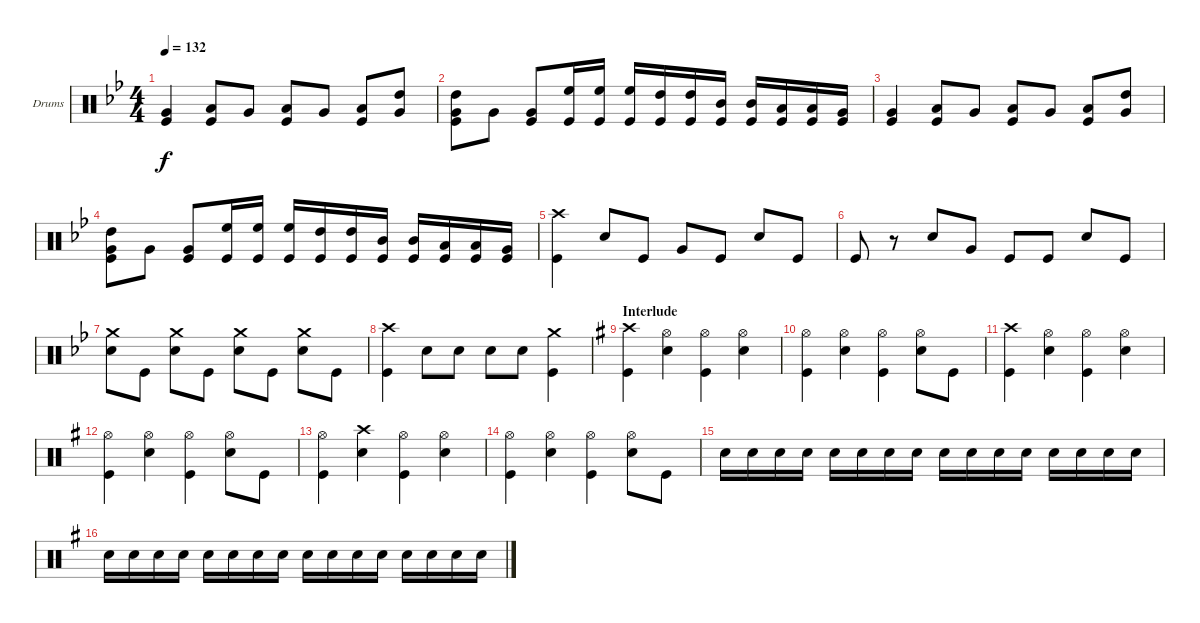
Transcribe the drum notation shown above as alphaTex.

\bracketExtendMode groupsimilarinstruments
\firstSystemTrackNameOrientation horizontal
\otherSystemsTrackNameOrientation horizontal
\track ("Drumkit" "Drums") {instrument percussion}
\staff {score}
\articulation defaults
\ts (4 4)
\tempo 132
\clef neutral
\ks bb
("Very Low Tom (hit)" "Kick (hit)").4{dy f} ("Low Tom (hit)" "Kick (hit)").8 "Very Low Tom (hit)".8 ("Low Tom (hit)" "Kick (hit)").8 "Very Low Tom (hit)".8 ("Low Tom (hit)" "Kick (hit)").8 ("High Tom (hit)" "Very Low Tom (hit)").8 |
("High Tom (hit)" "Very Low Tom (hit)" "Kick (hit)").8 "Very Low Tom (hit)".8 ("Very Low Tom (hit)" "Kick (hit)").8 ("High Floor Tom (hit)" "Kick (hit)").16 ("High Floor Tom (hit)" "Kick (hit)").16 ("High Floor Tom (hit)" "Kick (hit)").16 ("High Tom (hit)" "Kick (hit)").16 ("High Tom (hit)" "Kick (hit)").16 ("Mid Tom (hit)" "Kick (hit)").16 ("Mid Tom (hit)" "Kick (hit)").16 ("Low Tom (hit)" "Kick (hit)").16 ("Low Tom (hit)" "Kick (hit)").16 ("Very Low Tom (hit)" "Kick (hit)").16 |
("Very Low Tom (hit)" "Kick (hit)").4 ("Low Tom (hit)" "Kick (hit)").8 "Very Low Tom (hit)".8 ("Low Tom (hit)" "Kick (hit)").8 "Very Low Tom (hit)".8 ("Low Tom (hit)" "Kick (hit)").8 ("High Tom (hit)" "Very Low Tom (hit)").8 |
("High Tom (hit)" "Very Low Tom (hit)" "Kick (hit)").8 "Very Low Tom (hit)".8 ("Very Low Tom (hit)" "Kick (hit)").8 ("High Floor Tom (hit)" "Kick (hit)").16 ("High Floor Tom (hit)" "Kick (hit)").16 ("High Floor Tom (hit)" "Kick (hit)").16 ("High Tom (hit)" "Kick (hit)").16 ("High Tom (hit)" "Kick (hit)").16 ("Mid Tom (hit)" "Kick (hit)").16 ("Mid Tom (hit)" "Kick (hit)").16 ("Low Tom (hit)" "Kick (hit)").16 ("Low Tom (hit)" "Kick (hit)").16 ("Very Low Tom (hit)" "Kick (hit)").16 |
("Crash high (hit)" "Kick (hit)").4 "Snare (hit) 2".8 "Kick (hit)".8 "Very Low Tom (hit)".8 "Kick (hit)".8 "Snare (hit) 2".8 "Kick (hit)".8 |
"Kick (hit)".8 r.8 "Snare (hit) 2".8 "Very Low Tom (hit)".8 "Kick (hit)".8 "Kick (hit)".8 "Snare (hit) 2".8 "Kick (hit)".8 |
("Crash medium (hit)" "Snare (hit) 2").8 "Kick (hit)".8 ("Crash medium (hit)" "Snare (hit) 2").8 "Kick (hit)".8 ("Crash medium (hit)" "Snare (hit) 2").8 "Kick (hit)".8 ("Crash medium (hit)" "Snare (hit) 2").8 "Kick (hit)".8 |
("Crash high (hit)" "Kick (hit)").4 "Snare (hit) 2".8 "Snare (hit) 2".8 "Snare (hit) 2".8 "Snare (hit) 2".8 ("Crash medium (hit)" "Kick (hit)").4 |
\section ("" "Interlude")
\ks g
("Crash high (hit)" "Kick (hit)").4 ("Hi-Hat (open)" "Snare (hit) 2").4 ("Hi-Hat (open)" "Kick (hit)").4 ("Hi-Hat (open)" "Snare (hit) 2").4 |
("Hi-Hat (open)" "Kick (hit)").4 ("Hi-Hat (open)" "Snare (hit) 2").4 ("Hi-Hat (open)" "Kick (hit)").4 ("Hi-Hat (open)" "Snare (hit) 2").8 "Kick (hit)".8 |
("Crash high (hit)" "Kick (hit)").4 ("Hi-Hat (open)" "Snare (hit) 2").4 ("Hi-Hat (open)" "Kick (hit)").4 ("Hi-Hat (open)" "Snare (hit) 2").4 |
("Hi-Hat (open)" "Kick (hit)").4 ("Hi-Hat (open)" "Snare (hit) 2").4 ("Hi-Hat (open)" "Kick (hit)").4 ("Hi-Hat (open)" "Snare (hit) 2").8 "Kick (hit)".8 |
("Hi-Hat (open)" "Kick (hit)").4 ("Crash high (hit)" "Snare (hit) 2").4 ("Hi-Hat (open)" "Kick (hit)").4 ("Hi-Hat (open)" "Snare (hit) 2").4 |
("Hi-Hat (open)" "Kick (hit)").4 ("Hi-Hat (open)" "Snare (hit) 2").4 ("Hi-Hat (open)" "Kick (hit)").4 ("Hi-Hat (open)" "Snare (hit) 2").8 "Kick (hit)".8 |
"Snare (hit) 2".16 "Snare (hit) 2".16 "Snare (hit) 2".16 "Snare (hit) 2".16 "Snare (hit) 2".16 "Snare (hit) 2".16 "Snare (hit) 2".16 "Snare (hit) 2".16 "Snare (hit) 2".16 "Snare (hit) 2".16 "Snare (hit) 2".16 "Snare (hit) 2".16 "Snare (hit) 2".16 "Snare (hit) 2".16 "Snare (hit) 2".16 "Snare (hit) 2".16 |
"Snare (hit) 2".16 "Snare (hit) 2".16 "Snare (hit) 2".16 "Snare (hit) 2".16 "Snare (hit) 2".16 "Snare (hit) 2".16 "Snare (hit) 2".16 "Snare (hit) 2".16 "Snare (hit) 2".16 "Snare (hit) 2".16 "Snare (hit) 2".16 "Snare (hit) 2".16 "Snare (hit) 2".16 "Snare (hit) 2".16 "Snare (hit) 2".16 "Snare (hit) 2".16
